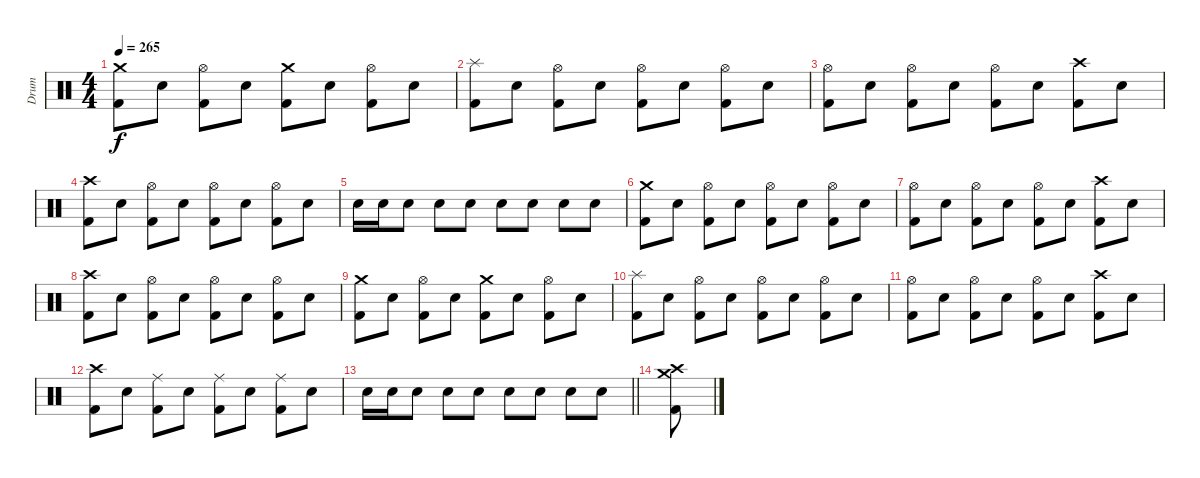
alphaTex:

\track ("Drum" "Drum") {instrument percussion}
\staff {score}
\articulation defaults
\ts (4 4)
\tempo 265
\clef neutral
\ks c
("Crash medium (hit)" "Kick (hit) 2").8{dy f} "Snare (hit) 2".8 ("Hi-Hat (open)" "Kick (hit) 2").8 "Snare (hit) 2".8 ("Crash medium (hit)" "Kick (hit) 2").8 "Snare (hit) 2".8 ("Hi-Hat (open)" "Kick (hit) 2").8 "Snare (hit) 2".8 |
("Splash (hit)" "Kick (hit) 2").8 "Snare (hit) 2".8 ("Hi-Hat (open)" "Kick (hit) 2").8 "Snare (hit) 2".8 ("Hi-Hat (open)" "Kick (hit) 2").8 "Snare (hit) 2".8 ("Hi-Hat (open)" "Kick (hit) 2").8 "Snare (hit) 2".8 |
("Hi-Hat (open)" "Kick (hit) 2").8 "Snare (hit) 2".8 ("Hi-Hat (open)" "Kick (hit) 2").8 "Snare (hit) 2".8 ("Hi-Hat (open)" "Kick (hit) 2").8 "Snare (hit) 2".8 ("Crash high (hit)" "Kick (hit) 2").8 "Snare (hit) 2".8 |
("Crash high (hit)" "Kick (hit) 2").8 "Snare (hit) 2".8 ("Hi-Hat (open)" "Kick (hit) 2").8 "Snare (hit) 2".8 ("Hi-Hat (open)" "Kick (hit) 2").8 "Snare (hit) 2".8 ("Hi-Hat (open)" "Kick (hit) 2").8 "Snare (hit) 2".8 |
"Snare (hit) 2".16 "Snare (hit) 2".16 "Snare (hit) 2".8 "Snare (hit) 2".8 "Snare (hit) 2".8 "Snare (hit) 2".8 "Snare (hit) 2".8 "Snare (hit) 2".8 "Snare (hit) 2".8 |
("Crash medium (hit)" "Kick (hit) 2").8 "Snare (hit) 2".8 ("Hi-Hat (open)" "Kick (hit) 2").8 "Snare (hit) 2".8 ("Hi-Hat (open)" "Kick (hit) 2").8 "Snare (hit) 2".8 ("Hi-Hat (open)" "Kick (hit) 2").8 "Snare (hit) 2".8 |
("Hi-Hat (open)" "Kick (hit) 2").8 "Snare (hit) 2".8 ("Hi-Hat (open)" "Kick (hit) 2").8 "Snare (hit) 2".8 ("Hi-Hat (open)" "Kick (hit) 2").8 "Snare (hit) 2".8 ("Crash high (hit)" "Kick (hit) 2").8 "Snare (hit) 2".8 |
("Crash high (hit)" "Kick (hit) 2").8 "Snare (hit) 2".8 ("Hi-Hat (open)" "Kick (hit) 2").8 "Snare (hit) 2".8 ("Hi-Hat (open)" "Kick (hit) 2").8 "Snare (hit) 2".8 ("Hi-Hat (open)" "Kick (hit) 2").8 "Snare (hit) 2".8 |
("Crash medium (hit)" "Kick (hit) 2").8 "Snare (hit) 2".8 ("Hi-Hat (open)" "Kick (hit) 2").8 "Snare (hit) 2".8 ("Crash medium (hit)" "Kick (hit) 2").8 "Snare (hit) 2".8 ("Hi-Hat (open)" "Kick (hit) 2").8 "Snare (hit) 2".8 |
("Splash (hit)" "Kick (hit) 2").8 "Snare (hit) 2".8 ("Hi-Hat (open)" "Kick (hit) 2").8 "Snare (hit) 2".8 ("Hi-Hat (open)" "Kick (hit) 2").8 "Snare (hit) 2".8 ("Hi-Hat (open)" "Kick (hit) 2").8 "Snare (hit) 2".8 |
("Hi-Hat (open)" "Kick (hit) 2").8 "Snare (hit) 2".8 ("Hi-Hat (open)" "Kick (hit) 2").8 "Snare (hit) 2".8 ("Hi-Hat (open)" "Kick (hit) 2").8 "Snare (hit) 2".8 ("Crash high (hit)" "Kick (hit) 2").8 "Snare (hit) 2".8 |
("Crash high (hit)" "Kick (hit) 2").8 "Snare (hit) 2".8 ("Ride (middle)" "Kick (hit) 2").8 "Snare (hit) 2".8 ("Ride (middle)" "Kick (hit) 2").8 "Snare (hit) 2".8 ("Ride (middle)" "Kick (hit) 2").8 "Snare (hit) 2".8 |
\barLineRight lightlight "Snare (hit) 2".16 "Snare (hit) 2".16 "Snare (hit) 2".8 "Snare (hit) 2".8 "Snare (hit) 2".8 "Snare (hit) 2".8 "Snare (hit) 2".8 "Snare (hit) 2".8 "Snare (hit) 2".8
|
("Crash medium (hit)" "Crash high (hit)" "Kick (hit) 2").8
